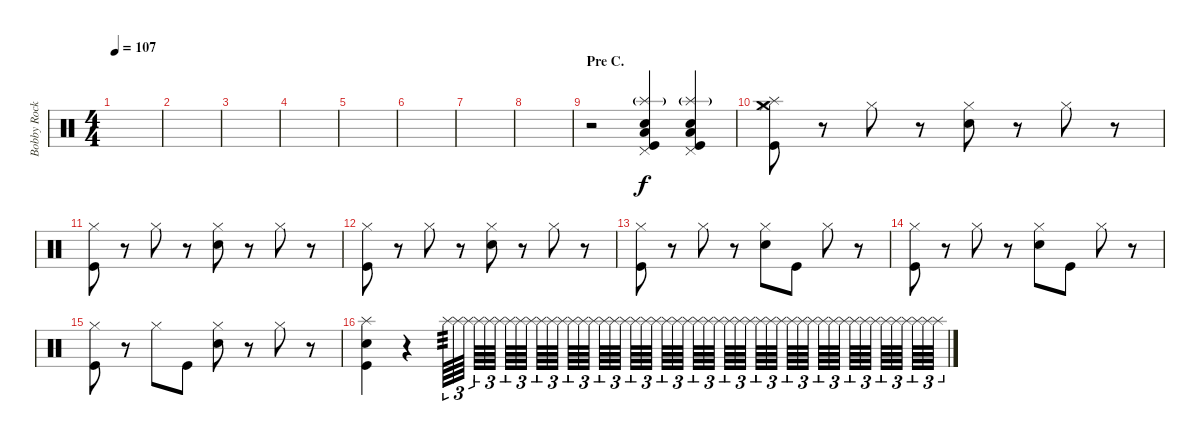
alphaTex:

\track ("Bobby Rock - drums" "Bobby Rock") {instrument percussion}
\staff {score}
\articulation defaults
\ts (4 4)
\tempo 107
\clef neutral
\ks c
|
|
|
|
|
|
|
|
\section ("" "Pre C.")
r.2 ("Pedal Hi-Hat (hit)" "Splash (hit)"{g} "Snare (hit) 2" "Low Floor Tom (hit)" "Kick (hit)").4 ("Pedal Hi-Hat (hit)" "Splash (hit)"{g} "Snare (hit) 2" "Low Floor Tom (hit)" "Kick (hit)").4 |
("Hi-Hat (closed)" "Splash (hit)" "Crash medium (hit)" "Kick (hit)").8{dy f} r.8 "Hi-Hat (closed)".8 r.8 ("Hi-Hat (closed)" "Snare (hit) 2").8 r.8 "Hi-Hat (closed)".8 r.8 |
("Hi-Hat (closed)" "Kick (hit)").8 r.8 "Hi-Hat (closed)".8 r.8 ("Hi-Hat (closed)" "Snare (hit) 2").8 r.8 "Hi-Hat (closed)".8 r.8 |
("Hi-Hat (closed)" "Kick (hit)").8 r.8 "Hi-Hat (closed)".8 r.8 ("Hi-Hat (closed)" "Snare (hit) 2").8 r.8 "Hi-Hat (closed)".8 r.8 |
("Hi-Hat (closed)" "Kick (hit)").8 r.8 "Hi-Hat (closed)".8 r.8 ("Hi-Hat (closed)" "Snare (hit) 2").8 "Kick (hit)".8 "Hi-Hat (closed)".8 r.8 |
("Hi-Hat (closed)" "Kick (hit)").8 r.8 "Hi-Hat (closed)".8 r.8 ("Hi-Hat (closed)" "Snare (hit) 2").8 "Kick (hit)".8 "Hi-Hat (closed)".8 r.8 |
("Hi-Hat (closed)" "Kick (hit)").8 r.8 "Hi-Hat (closed)".8 "Kick (hit)".8 ("Hi-Hat (closed)" "Snare (hit) 2").8 r.8 "Hi-Hat (closed)".8 r.8 |
("Splash (hit)" "Snare (hit) 2" "Kick (hit)").4 r.4{volume 5} "Splash (hit)".64{tu (3 2) tp 3 volume 13} "Splash (hit)".64{tu (3 2)} "Splash (hit)".64{tu (3 2)} "Splash (hit)".64{tu (3 2)} "Splash (hit)".64{tu (3 2)} "Splash (hit)".64{tu (3 2)} "Splash (hit)".64{tu (3 2)} "Splash (hit)".64{tu (3 2)} "Splash (hit)".64{tu (3 2)} "Splash (hit)".64{tu (3 2)} "Splash (hit)".64{tu (3 2)} "Splash (hit)".64{tu (3 2)} "Splash (hit)".64{tu (3 2)} "Splash (hit)".64{tu (3 2)} "Splash (hit)".64{tu (3 2)} "Splash (hit)".64{tu (3 2)} "Splash (hit)".64{tu (3 2)} "Splash (hit)".64{tu (3 2)} "Splash (hit)".64{tu (3 2)} "Splash (hit)".64{tu (3 2)} "Splash (hit)".64{tu (3 2)} "Splash (hit)".64{tu (3 2)} "Splash (hit)".64{tu (3 2)} "Splash (hit)".64{tu (3 2)} "Splash (hit)".64{tu (3 2)} "Splash (hit)".64{tu (3 2)} "Splash (hit)".64{tu (3 2)} "Splash (hit)".64{tu (3 2)} "Splash (hit)".64{tu (3 2)} "Splash (hit)".64{tu (3 2)} "Splash (hit)".64{tu (3 2)} "Splash (hit)".64{tu (3 2)} "Splash (hit)".64{tu (3 2)} "Splash (hit)".64{tu (3 2)} "Splash (hit)".64{tu (3 2)} "Splash (hit)".64{tu (3 2)} "Splash (hit)".64{tu (3 2)} "Splash (hit)".64{tu (3 2)} "Splash (hit)".64{tu (3 2)} "Splash (hit)".64{tu (3 2)} "Splash (hit)".64{tu (3 2)} "Splash (hit)".64{tu (3 2)} "Splash (hit)".64{tu (3 2)} "Splash (hit)".64{tu (3 2)} "Splash (hit)".64{tu (3 2)} "Splash (hit)".64{tu (3 2)} "Splash (hit)".64{tu (3 2)} "Splash (hit)".64{tu (3 2)}
